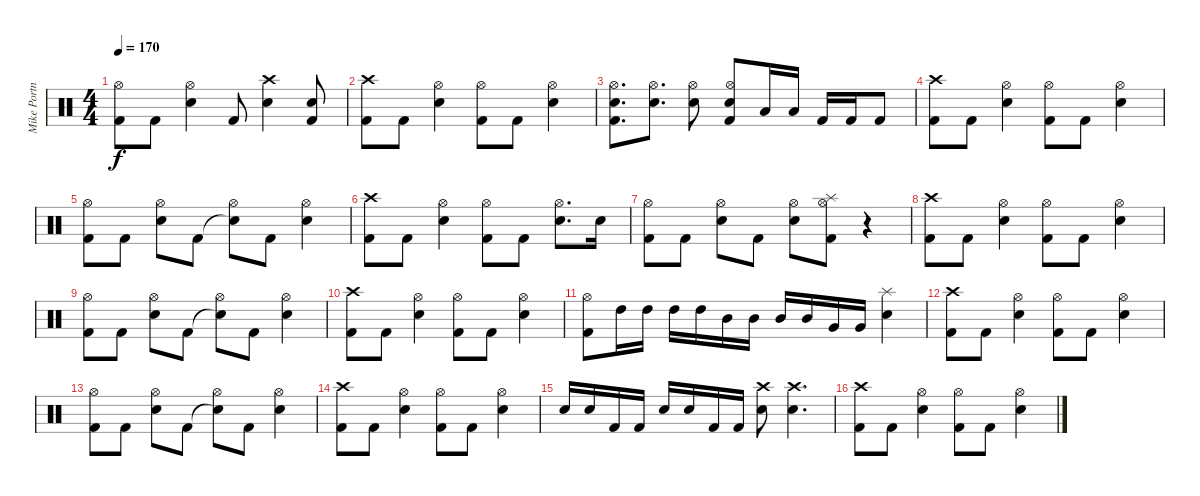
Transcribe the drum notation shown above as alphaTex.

\track ("Mike Portnoy" "Mike Portn") {instrument percussion}
\staff {score}
\articulation defaults
\ts (4 4)
\tempo 170
\clef neutral
\ks c
("Kick (hit) 2" "Hi-Hat (open)").8{dy f} "Kick (hit) 2".8 ("Electric Snare (hit)" "Hi-Hat (open)").4 "Kick (hit) 2".8 ("Electric Snare (hit)" "Crash high (hit)").4 ("Kick (hit) 2" "Electric Snare (hit)").8 |
("Kick (hit) 2" "Crash high (hit)").8 "Kick (hit) 2".8 ("Electric Snare (hit)" "Hi-Hat (open)").4 ("Kick (hit) 2" "Hi-Hat (open)").8 "Kick (hit) 2".8 ("Electric Snare (hit)" "Hi-Hat (open)").4 |
("Electric Snare (hit)" "Kick (hit) 2" "Hi-Hat (open)").8{d} ("Electric Snare (hit)" "Hi-Hat (open)").8{d} ("Electric Snare (hit)" "Hi-Hat (open)").8 ("Electric Snare (hit)" "Kick (hit) 2" "Hi-Hat (open)").8 "Low Tom (hit)".16 "Low Tom (hit)".16 "Kick (hit) 2".16 "Kick (hit) 2".16 "Kick (hit) 2".8 |
("Kick (hit) 2" "Crash high (hit)").8 "Kick (hit) 2".8 ("Electric Snare (hit)" "Hi-Hat (open)").4 ("Kick (hit) 2" "Hi-Hat (open)").8 "Kick (hit) 2".8 ("Electric Snare (hit)" "Hi-Hat (open)").4 |
("Kick (hit) 2" "Hi-Hat (open)").8 "Kick (hit) 2".8 ("Electric Snare (hit)" "Hi-Hat (open)").8 "Kick (hit) 2".8 ("Snare (hit)"{t} "Hi-Hat (open)").8 "Kick (hit) 2".8 ("Electric Snare (hit)" "Hi-Hat (open)").4 |
("Kick (hit) 2" "Crash high (hit)").8 "Kick (hit) 2".8 ("Electric Snare (hit)" "Hi-Hat (open)").4 ("Kick (hit) 2" "Hi-Hat (open)").8 "Kick (hit) 2".8 ("Electric Snare (hit)" "Hi-Hat (open)").8{d} "Electric Snare (hit)".16 |
("Kick (hit) 2" "Hi-Hat (open)").8 "Kick (hit) 2".8 ("Electric Snare (hit)" "Hi-Hat (open)").8 "Kick (hit) 2".8 ("Electric Snare (hit)" "Hi-Hat (open)").8 ("Kick (hit) 2" "Splash (hit)" "Hi-Hat (open)").8 r.4 |
("Kick (hit) 2" "Crash high (hit)").8 "Kick (hit) 2".8 ("Electric Snare (hit)" "Hi-Hat (open)").4 ("Kick (hit) 2" "Hi-Hat (open)").8 "Kick (hit) 2".8 ("Electric Snare (hit)" "Hi-Hat (open)").4 |
("Kick (hit) 2" "Hi-Hat (open)").8 "Kick (hit) 2".8 ("Electric Snare (hit)" "Hi-Hat (open)").8 "Kick (hit) 2".8 ("Snare (hit)"{t} "Hi-Hat (open)").8 "Kick (hit) 2".8 ("Electric Snare (hit)" "Hi-Hat (open)").4 |
("Kick (hit) 2" "Crash high (hit)").8 "Kick (hit) 2".8 ("Electric Snare (hit)" "Hi-Hat (open)").4 ("Kick (hit) 2" "Hi-Hat (open)").8 "Kick (hit) 2".8 ("Electric Snare (hit)" "Hi-Hat (open)").4 |
("Kick (hit) 2" "Hi-Hat (open)").8 "High Tom (hit)".16 "High Tom (hit)".16 "High Tom (hit)".16 "High Tom (hit)".16 "Mid Tom (hit)".16 "Mid Tom (hit)".16 "Mid Tom (hit)".16 "Mid Tom (hit)".16 "Very Low Tom (hit)".16 "Very Low Tom (hit)".16 ("Electric Snare (hit)" "Splash (hit)").4 |
("Kick (hit) 2" "Crash high (hit)").8 "Kick (hit) 2".8 ("Electric Snare (hit)" "Hi-Hat (open)").4 ("Kick (hit) 2" "Hi-Hat (open)").8 "Kick (hit) 2".8 ("Electric Snare (hit)" "Hi-Hat (open)").4 |
("Kick (hit) 2" "Hi-Hat (open)").8 "Kick (hit) 2".8 ("Electric Snare (hit)" "Hi-Hat (open)").8 "Kick (hit) 2".8 ("Snare (hit)"{t} "Hi-Hat (open)").8 "Kick (hit) 2".8 ("Electric Snare (hit)" "Hi-Hat (open)").4 |
("Kick (hit) 2" "Crash high (hit)").8 "Kick (hit) 2".8 ("Electric Snare (hit)" "Hi-Hat (open)").4 ("Kick (hit) 2" "Hi-Hat (open)").8 "Kick (hit) 2".8 ("Electric Snare (hit)" "Hi-Hat (open)").4 |
"Electric Snare (hit)".16 "Electric Snare (hit)".16 "Kick (hit) 2".16 "Kick (hit) 2".16 "Electric Snare (hit)".16 "Electric Snare (hit)".16 "Kick (hit) 2".16 "Kick (hit) 2".16 ("Electric Snare (hit)" "Crash high (hit)").8 ("Electric Snare (hit)" "Crash high (hit)").4{d} |
("Kick (hit) 2" "Crash high (hit)").8 "Kick (hit) 2".8 ("Electric Snare (hit)" "Hi-Hat (open)").4 ("Kick (hit) 2" "Hi-Hat (open)").8 "Kick (hit) 2".8 ("Electric Snare (hit)" "Hi-Hat (open)").4
